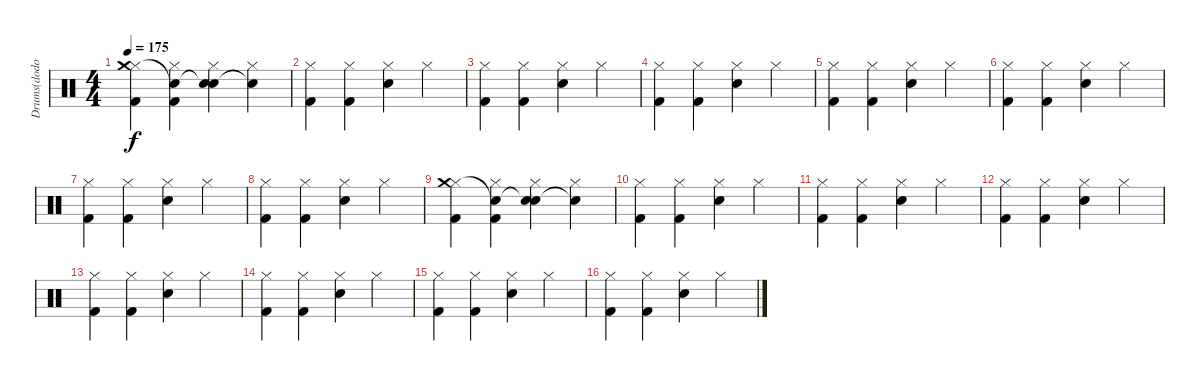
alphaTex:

\track ("Drums(dodo)" "Drums(dodo") {instrument percussion}
\staff {score}
\articulation defaults
\ts (4 4)
\tempo 175
\clef neutral
\ks c
("Hi-Hat (closed)" "Crash medium (hit)" "Kick (hit) 2").4{dy f} ("Hi-Hat (closed)" "Snare (hit) 2"{t} "Kick (hit) 2").4 ("Hi-Hat (closed)" "Snare (hit)"{t} "Snare (hit) 2").4 ("Hi-Hat (closed)" "Snare (hit)"{t}).4 |
("Hi-Hat (closed)" "Kick (hit) 2").4 ("Hi-Hat (closed)" "Kick (hit) 2").4 ("Hi-Hat (closed)" "Snare (hit) 2").4 "Hi-Hat (closed)".4 |
("Hi-Hat (closed)" "Kick (hit) 2").4 ("Hi-Hat (closed)" "Kick (hit) 2").4 ("Hi-Hat (closed)" "Snare (hit) 2").4 "Hi-Hat (closed)".4 |
("Hi-Hat (closed)" "Kick (hit) 2").4 ("Hi-Hat (closed)" "Kick (hit) 2").4 ("Hi-Hat (closed)" "Snare (hit) 2").4 "Hi-Hat (closed)".4 |
("Hi-Hat (closed)" "Kick (hit) 2").4 ("Hi-Hat (closed)" "Kick (hit) 2").4 ("Hi-Hat (closed)" "Snare (hit) 2").4 "Hi-Hat (closed)".4 |
("Hi-Hat (closed)" "Kick (hit) 2").4 ("Hi-Hat (closed)" "Kick (hit) 2").4 ("Hi-Hat (closed)" "Snare (hit) 2").4 "Hi-Hat (closed)".4 |
("Hi-Hat (closed)" "Kick (hit) 2").4 ("Hi-Hat (closed)" "Kick (hit) 2").4 ("Hi-Hat (closed)" "Snare (hit) 2").4 "Hi-Hat (closed)".4 |
("Hi-Hat (closed)" "Kick (hit) 2").4 ("Hi-Hat (closed)" "Kick (hit) 2").4 ("Hi-Hat (closed)" "Snare (hit) 2").4 "Hi-Hat (closed)".4 |
("Hi-Hat (closed)" "Crash medium (hit)" "Kick (hit) 2").4 ("Hi-Hat (closed)" "Snare (hit) 2"{t} "Kick (hit) 2").4 ("Hi-Hat (closed)" "Snare (hit)"{t} "Snare (hit) 2").4 ("Hi-Hat (closed)" "Snare (hit)"{t}).4 |
("Hi-Hat (closed)" "Kick (hit) 2").4 ("Hi-Hat (closed)" "Kick (hit) 2").4 ("Hi-Hat (closed)" "Snare (hit) 2").4 "Hi-Hat (closed)".4 |
("Hi-Hat (closed)" "Kick (hit) 2").4 ("Hi-Hat (closed)" "Kick (hit) 2").4 ("Hi-Hat (closed)" "Snare (hit) 2").4 "Hi-Hat (closed)".4 |
("Hi-Hat (closed)" "Kick (hit) 2").4 ("Hi-Hat (closed)" "Kick (hit) 2").4 ("Hi-Hat (closed)" "Snare (hit) 2").4 "Hi-Hat (closed)".4 |
("Hi-Hat (closed)" "Kick (hit) 2").4 ("Hi-Hat (closed)" "Kick (hit) 2").4 ("Hi-Hat (closed)" "Snare (hit) 2").4 "Hi-Hat (closed)".4 |
("Hi-Hat (closed)" "Kick (hit) 2").4 ("Hi-Hat (closed)" "Kick (hit) 2").4 ("Hi-Hat (closed)" "Snare (hit) 2").4 "Hi-Hat (closed)".4 |
("Hi-Hat (closed)" "Kick (hit) 2").4 ("Hi-Hat (closed)" "Kick (hit) 2").4 ("Hi-Hat (closed)" "Snare (hit) 2").4 "Hi-Hat (closed)".4 |
("Hi-Hat (closed)" "Kick (hit) 2").4 ("Hi-Hat (closed)" "Kick (hit) 2").4 ("Hi-Hat (closed)" "Snare (hit) 2").4 "Hi-Hat (closed)".4
